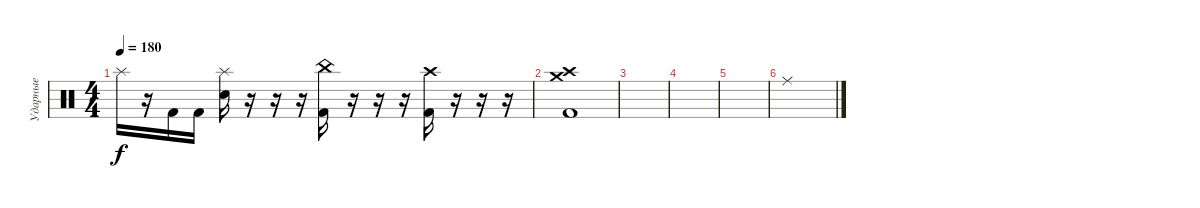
\track ("Ударные" "Ударные") {instrument percussion}
\staff {score}
\articulation defaults
\ts (4 4)
\tempo 180
\clef neutral
\ks c "Splash (hit)".16{dy f}
r.16 "Kick (hit) 2".16 "Kick (hit) 2".16 ("Electric Snare (hit)" "Splash (hit)").16 r.16 r.16 r.16 ("Kick (hit) 2" "China (hit)").16 r.16 r.16 r.16 ("Kick (hit) 2" "Crash high (hit)").16 r.16 r.16 r.16 |
("Kick (hit) 2" "Crash high (hit)" "Crash medium (hit)").1 |
|
|
|
"Ride (middle)".1
